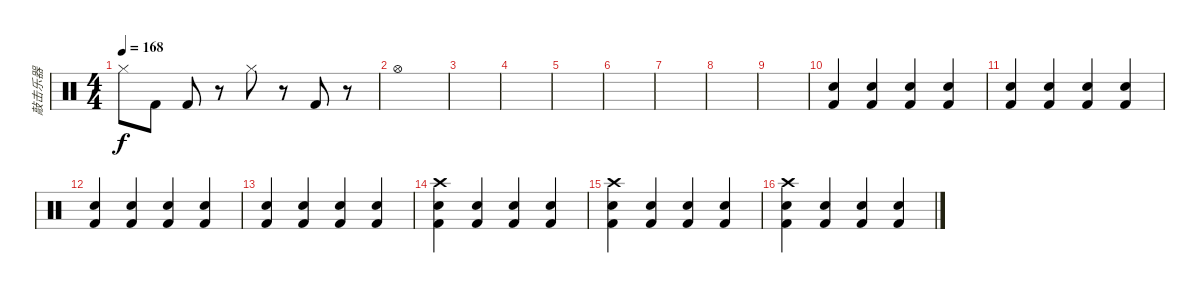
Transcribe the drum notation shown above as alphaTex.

\track ("敲击乐器" "敲击乐器") {instrument percussion}
\staff {score}
\articulation defaults
\ts (4 4)
\tempo 168
\clef neutral
\ks c "Hi-Hat (closed)".8{dy f} "Kick (hit) 2".8 "Kick (hit) 2".8
r.8 "Hi-Hat (closed)".8 r.8 "Kick (hit) 2".8 r.8 |
"Hi-Hat (open)".1 |
|
|
|
|
|
|
|
("Snare (hit) 2" "Kick (hit) 2").4 ("Snare (hit) 2" "Kick (hit) 2").4 ("Snare (hit) 2" "Kick (hit) 2").4 ("Snare (hit) 2" "Kick (hit) 2").4 |
("Snare (hit) 2" "Kick (hit) 2").4 ("Snare (hit) 2" "Kick (hit) 2").4 ("Snare (hit) 2" "Kick (hit) 2").4 ("Snare (hit) 2" "Kick (hit) 2").4 |
("Snare (hit) 2" "Kick (hit) 2").4 ("Snare (hit) 2" "Kick (hit) 2").4 ("Snare (hit) 2" "Kick (hit) 2").4 ("Snare (hit) 2" "Kick (hit) 2").4 |
("Snare (hit) 2" "Kick (hit) 2").4 ("Snare (hit) 2" "Kick (hit) 2").4 ("Snare (hit) 2" "Kick (hit) 2").4 ("Snare (hit) 2" "Kick (hit) 2").4 |
("Crash high (hit)" "Snare (hit) 2" "Kick (hit) 2").4 ("Snare (hit) 2" "Kick (hit) 2").4 ("Snare (hit) 2" "Kick (hit) 2").4 ("Snare (hit) 2" "Kick (hit) 2").4 |
("Crash high (hit)" "Snare (hit) 2" "Kick (hit) 2").4 ("Snare (hit) 2" "Kick (hit) 2").4 ("Snare (hit) 2" "Kick (hit) 2").4 ("Snare (hit) 2" "Kick (hit) 2").4 |
("Crash high (hit)" "Snare (hit) 2" "Kick (hit) 2").4 ("Snare (hit) 2" "Kick (hit) 2").4 ("Snare (hit) 2" "Kick (hit) 2").4 ("Snare (hit) 2" "Kick (hit) 2").4
